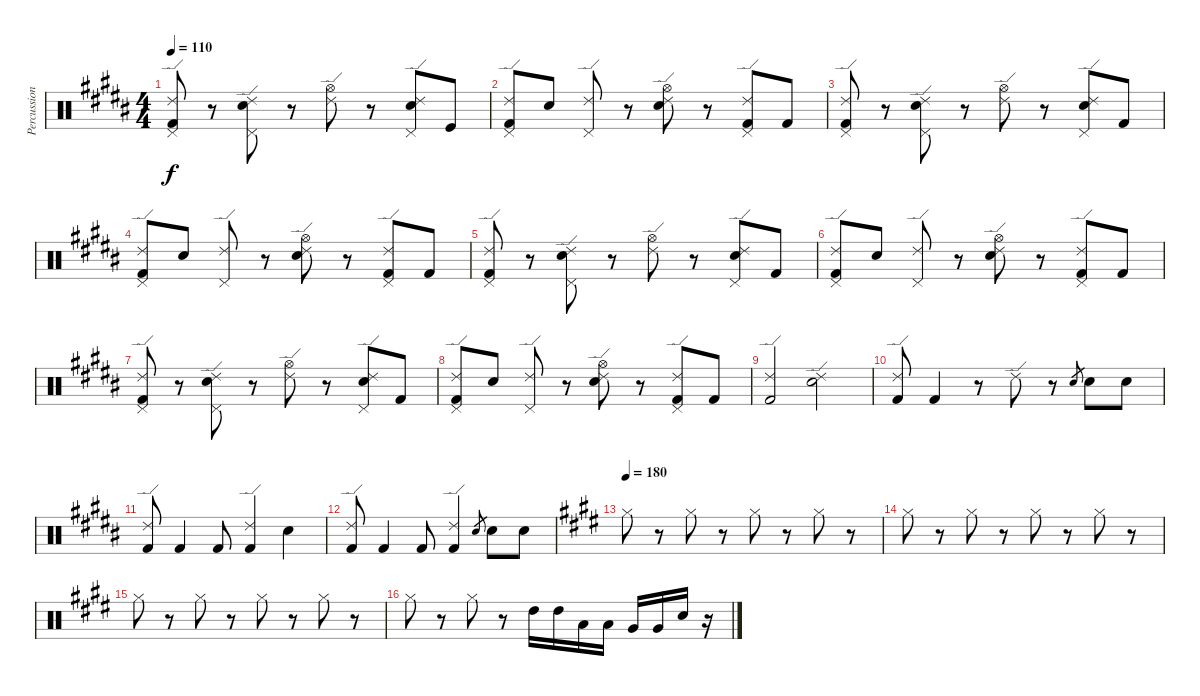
\track ("Percussion" "Percussion") {instrument percussion}
\staff {score}
\articulation defaults
\ts (4 4)
\tempo 110
\clef neutral
\ks b
("Ride (edge) 2" "Pedal Hi-Hat (hit)" "Kick (hit) 2").8{dy f} r.8 ("Ride (edge) 2" "Pedal Hi-Hat (hit)" "Electric Snare (hit)").8 r.8 ("Ride (edge) 2" "Hi-Hat (open)").8 r.8 ("Ride (edge) 2" "Pedal Hi-Hat (hit)" "Electric Snare (hit)").8 "Kick (hit)".8 |
("Ride (edge) 2" "Pedal Hi-Hat (hit)" "Kick (hit) 2").8 "Electric Snare (hit)".8 ("Ride (edge) 2" "Pedal Hi-Hat (hit)").8 r.8 ("Ride (edge) 2" "Hi-Hat (open)" "Electric Snare (hit)").8 r.8 ("Ride (edge) 2" "Pedal Hi-Hat (hit)" "Kick (hit) 2").8 "Kick (hit) 2".8 |
("Ride (edge) 2" "Pedal Hi-Hat (hit)" "Kick (hit) 2").8 r.8 ("Ride (edge) 2" "Pedal Hi-Hat (hit)" "Electric Snare (hit)").8 r.8 ("Ride (edge) 2" "Hi-Hat (open)").8 r.8 ("Ride (edge) 2" "Pedal Hi-Hat (hit)" "Electric Snare (hit)").8 "Kick (hit) 2".8 |
("Ride (edge) 2" "Pedal Hi-Hat (hit)" "Kick (hit) 2").8 "Electric Snare (hit)".8 ("Ride (edge) 2" "Pedal Hi-Hat (hit)").8 r.8 ("Ride (edge) 2" "Hi-Hat (open)" "Electric Snare (hit)").8 r.8 ("Ride (edge) 2" "Pedal Hi-Hat (hit)" "Kick (hit) 2").8 "Kick (hit) 2".8 |
("Ride (edge) 2" "Pedal Hi-Hat (hit)" "Kick (hit) 2").8 r.8 ("Ride (edge) 2" "Pedal Hi-Hat (hit)" "Electric Snare (hit)").8 r.8 ("Ride (edge) 2" "Hi-Hat (open)").8 r.8 ("Ride (edge) 2" "Pedal Hi-Hat (hit)" "Electric Snare (hit)").8 "Kick (hit) 2".8 |
("Ride (edge) 2" "Pedal Hi-Hat (hit)" "Kick (hit) 2").8 "Electric Snare (hit)".8 ("Ride (edge) 2" "Pedal Hi-Hat (hit)").8 r.8 ("Ride (edge) 2" "Hi-Hat (open)" "Electric Snare (hit)").8 r.8 ("Ride (edge) 2" "Pedal Hi-Hat (hit)" "Kick (hit) 2").8 "Kick (hit) 2".8 |
("Ride (edge) 2" "Pedal Hi-Hat (hit)" "Kick (hit) 2").8 r.8 ("Ride (edge) 2" "Pedal Hi-Hat (hit)" "Electric Snare (hit)").8 r.8 ("Ride (edge) 2" "Hi-Hat (open)").8 r.8 ("Ride (edge) 2" "Pedal Hi-Hat (hit)" "Electric Snare (hit)").8 "Kick (hit) 2".8 |
("Ride (edge) 2" "Pedal Hi-Hat (hit)" "Kick (hit) 2").8 "Electric Snare (hit)".8 ("Ride (edge) 2" "Pedal Hi-Hat (hit)").8 r.8 ("Ride (edge) 2" "Hi-Hat (open)" "Electric Snare (hit)").8 r.8 ("Ride (edge) 2" "Pedal Hi-Hat (hit)" "Kick (hit) 2").8 "Kick (hit) 2".8 |
("Ride (edge) 2" "Kick (hit) 2").2 ("Ride (edge) 2" "Electric Snare (hit)").2 |
("Ride (edge) 2" "Kick (hit) 2").8 "Kick (hit) 2".4 r.8 "Ride (edge) 2".8 r.8 "Electric Snare (hit)".8{gr} "Electric Snare (hit)".8 "Electric Snare (hit)".8 |
("Ride (edge) 2" "Kick (hit) 2").8 "Kick (hit) 2".4 "Kick (hit) 2".8 ("Ride (edge) 2" "Kick (hit) 2").4 "Electric Snare (hit)".4 |
("Ride (edge) 2" "Kick (hit) 2").8 "Kick (hit) 2".4 "Kick (hit) 2".8 ("Ride (edge) 2" "Kick (hit) 2").4 "Electric Snare (hit)".8{gr} "Electric Snare (hit)".8 "Electric Snare (hit)".8 |
\tempo 180
\ks e "Hi-Hat (closed)".8
r.8 "Hi-Hat (closed)".8 r.8 "Hi-Hat (closed)".8 r.8 "Hi-Hat (closed)".8 r.8 |
"Hi-Hat (closed)".8 r.8 "Hi-Hat (closed)".8 r.8 "Hi-Hat (closed)".8 r.8 "Hi-Hat (closed)".8 r.8 |
"Hi-Hat (closed)".8 r.8 "Hi-Hat (closed)".8 r.8 "Hi-Hat (closed)".8 r.8 "Hi-Hat (closed)".8 r.8 |
"Hi-Hat (closed)".8 r.8 "Hi-Hat (closed)".8 r.8 "High Tom (hit)".16 "High Tom (hit)".16 "Low Tom (hit)".16 "Low Tom (hit)".16 "Very Low Tom (hit)".16 "Very Low Tom (hit)".16 "Electric Snare (hit)".16 r.16
